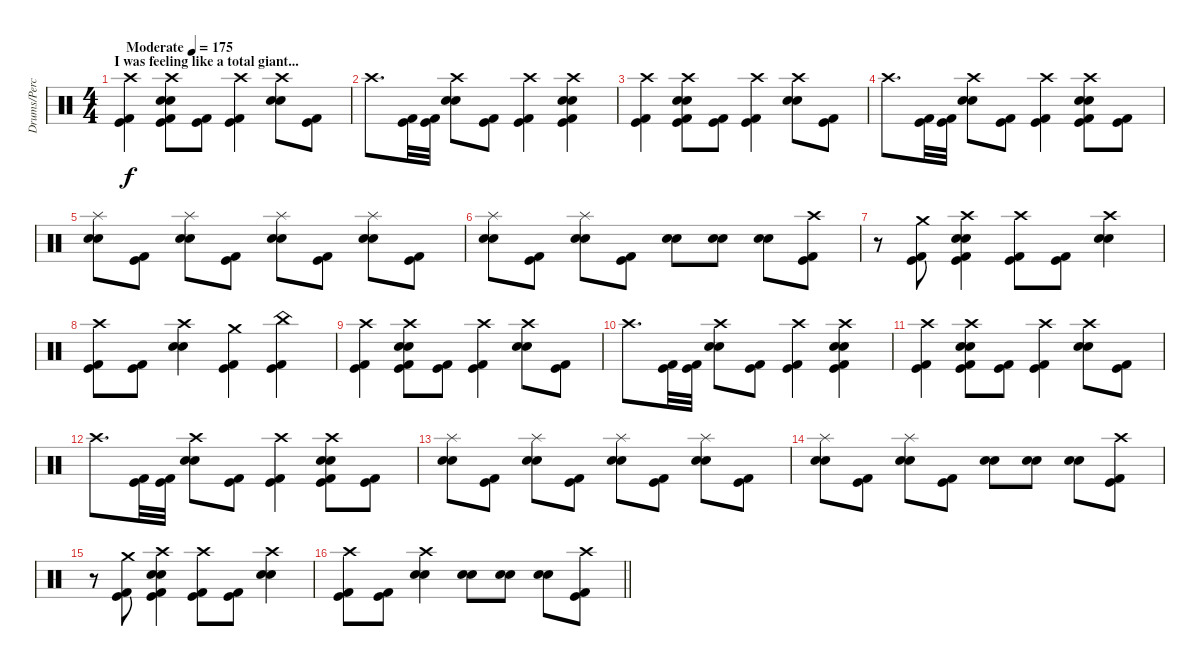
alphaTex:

\track ("Drums/Percussion" "Drums/Perc") {instrument percussion}
\staff {score}
\articulation defaults
\ts (4 4)
\section ("" "I was feeling like a total giant...")
\tempo (175 "Moderate")
\clef neutral
\ks c
("Crash high (hit)" "Kick (hit)" "Kick (hit) 2").4{dy f} ("Crash high (hit)" "Electric Snare (hit)" "Snare (hit) 2" "Kick (hit)" "Kick (hit) 2").8 ("Kick (hit)" "Kick (hit) 2").8 ("Crash high (hit)" "Kick (hit)" "Kick (hit) 2").4 ("Crash high (hit)" "Electric Snare (hit)" "Snare (hit) 2").8 ("Kick (hit)" "Kick (hit) 2").8 |
"Crash high (hit)".8{d} ("Kick (hit)" "Kick (hit) 2").32 ("Kick (hit)" "Kick (hit) 2").32 ("Crash high (hit)" "Electric Snare (hit)" "Snare (hit) 2").8 ("Kick (hit)" "Kick (hit) 2").8 ("Crash high (hit)" "Kick (hit)" "Kick (hit) 2").4 ("Crash high (hit)" "Electric Snare (hit)" "Snare (hit) 2" "Kick (hit)" "Kick (hit) 2").4 |
("Crash high (hit)" "Kick (hit)" "Kick (hit) 2").4 ("Crash high (hit)" "Electric Snare (hit)" "Snare (hit) 2" "Kick (hit)" "Kick (hit) 2").8 ("Kick (hit)" "Kick (hit) 2").8 ("Crash high (hit)" "Kick (hit)" "Kick (hit) 2").4 ("Crash high (hit)" "Electric Snare (hit)" "Snare (hit) 2").8 ("Kick (hit)" "Kick (hit) 2").8 |
"Crash high (hit)".8{d} ("Kick (hit)" "Kick (hit) 2").32 ("Kick (hit)" "Kick (hit) 2").32 ("Crash high (hit)" "Electric Snare (hit)" "Snare (hit) 2").8 ("Kick (hit)" "Kick (hit) 2").8 ("Crash high (hit)" "Kick (hit)" "Kick (hit) 2").4 ("Crash high (hit)" "Electric Snare (hit)" "Snare (hit) 2" "Kick (hit)" "Kick (hit) 2").8 ("Kick (hit)" "Kick (hit) 2").8 |
("Splash (hit)" "Electric Snare (hit)" "Snare (hit) 2").8 ("Kick (hit)" "Kick (hit) 2").8 ("Splash (hit)" "Electric Snare (hit)" "Snare (hit) 2").8 ("Kick (hit)" "Kick (hit) 2").8 ("Splash (hit)" "Electric Snare (hit)" "Snare (hit) 2").8 ("Kick (hit)" "Kick (hit) 2").8 ("Splash (hit)" "Electric Snare (hit)" "Snare (hit) 2").8 ("Kick (hit)" "Kick (hit) 2").8 |
("Splash (hit)" "Electric Snare (hit)" "Snare (hit) 2").8 ("Kick (hit)" "Kick (hit) 2").8 ("Splash (hit)" "Electric Snare (hit)" "Snare (hit) 2").8 ("Kick (hit)" "Kick (hit) 2").8 ("Electric Snare (hit)" "Snare (hit) 2").8 ("Electric Snare (hit)" "Snare (hit) 2").8 ("Electric Snare (hit)" "Snare (hit) 2").8 ("Crash high (hit)" "Kick (hit)" "Kick (hit) 2").8 |
r.8 ("Crash medium (hit)" "Kick (hit)" "Kick (hit) 2").8 ("Crash high (hit)" "Electric Snare (hit)" "Snare (hit) 2" "Kick (hit)" "Kick (hit) 2").4 ("Crash high (hit)" "Kick (hit)" "Kick (hit) 2").8 ("Kick (hit)" "Kick (hit) 2").8 ("Crash high (hit)" "Electric Snare (hit)" "Snare (hit) 2").4 |
("Crash high (hit)" "Kick (hit)" "Kick (hit) 2").8 ("Kick (hit)" "Kick (hit) 2").8 ("Crash high (hit)" "Electric Snare (hit)" "Snare (hit) 2").4 ("Crash medium (hit)" "Kick (hit)" "Kick (hit) 2").4 ("China (hit)" "Kick (hit)" "Kick (hit) 2").4 |
("Crash high (hit)" "Kick (hit)" "Kick (hit) 2").4 ("Crash high (hit)" "Electric Snare (hit)" "Snare (hit) 2" "Kick (hit)" "Kick (hit) 2").8 ("Kick (hit)" "Kick (hit) 2").8 ("Crash high (hit)" "Kick (hit)" "Kick (hit) 2").4 ("Crash high (hit)" "Electric Snare (hit)" "Snare (hit) 2").8 ("Kick (hit)" "Kick (hit) 2").8 |
"Crash high (hit)".8{d} ("Kick (hit)" "Kick (hit) 2").32 ("Kick (hit)" "Kick (hit) 2").32 ("Crash high (hit)" "Electric Snare (hit)" "Snare (hit) 2").8 ("Kick (hit)" "Kick (hit) 2").8 ("Crash high (hit)" "Kick (hit)" "Kick (hit) 2").4 ("Crash high (hit)" "Electric Snare (hit)" "Snare (hit) 2" "Kick (hit)" "Kick (hit) 2").4 |
("Crash high (hit)" "Kick (hit)" "Kick (hit) 2").4 ("Crash high (hit)" "Electric Snare (hit)" "Snare (hit) 2" "Kick (hit)" "Kick (hit) 2").8 ("Kick (hit)" "Kick (hit) 2").8 ("Crash high (hit)" "Kick (hit)" "Kick (hit) 2").4 ("Crash high (hit)" "Electric Snare (hit)" "Snare (hit) 2").8 ("Kick (hit)" "Kick (hit) 2").8 |
"Crash high (hit)".8{d} ("Kick (hit)" "Kick (hit) 2").32 ("Kick (hit)" "Kick (hit) 2").32 ("Crash high (hit)" "Electric Snare (hit)" "Snare (hit) 2").8 ("Kick (hit)" "Kick (hit) 2").8 ("Crash high (hit)" "Kick (hit)" "Kick (hit) 2").4 ("Crash high (hit)" "Electric Snare (hit)" "Snare (hit) 2" "Kick (hit)" "Kick (hit) 2").8 ("Kick (hit)" "Kick (hit) 2").8 |
("Splash (hit)" "Electric Snare (hit)" "Snare (hit) 2").8 ("Kick (hit)" "Kick (hit) 2").8 ("Splash (hit)" "Electric Snare (hit)" "Snare (hit) 2").8 ("Kick (hit)" "Kick (hit) 2").8 ("Splash (hit)" "Electric Snare (hit)" "Snare (hit) 2").8 ("Kick (hit)" "Kick (hit) 2").8 ("Splash (hit)" "Electric Snare (hit)" "Snare (hit) 2").8 ("Kick (hit)" "Kick (hit) 2").8 |
("Splash (hit)" "Electric Snare (hit)" "Snare (hit) 2").8 ("Kick (hit)" "Kick (hit) 2").8 ("Splash (hit)" "Electric Snare (hit)" "Snare (hit) 2").8 ("Kick (hit)" "Kick (hit) 2").8 ("Electric Snare (hit)" "Snare (hit) 2").8 ("Electric Snare (hit)" "Snare (hit) 2").8 ("Electric Snare (hit)" "Snare (hit) 2").8 ("Crash high (hit)" "Kick (hit)" "Kick (hit) 2").8 |
r.8 ("Crash medium (hit)" "Kick (hit)" "Kick (hit) 2").8 ("Crash high (hit)" "Electric Snare (hit)" "Snare (hit) 2" "Kick (hit)" "Kick (hit) 2").4 ("Crash high (hit)" "Kick (hit)" "Kick (hit) 2").8 ("Kick (hit)" "Kick (hit) 2").8 ("Crash high (hit)" "Electric Snare (hit)" "Snare (hit) 2").4 |
\barLineRight lightlight
("Crash high (hit)" "Kick (hit)" "Kick (hit) 2").8 ("Kick (hit)" "Kick (hit) 2").8 ("Crash high (hit)" "Electric Snare (hit)" "Snare (hit) 2").4 ("Electric Snare (hit)" "Snare (hit) 2").8 ("Electric Snare (hit)" "Snare (hit) 2").8 ("Electric Snare (hit)" "Snare (hit) 2").8 ("Crash high (hit)" "Kick (hit)" "Kick (hit) 2").8
